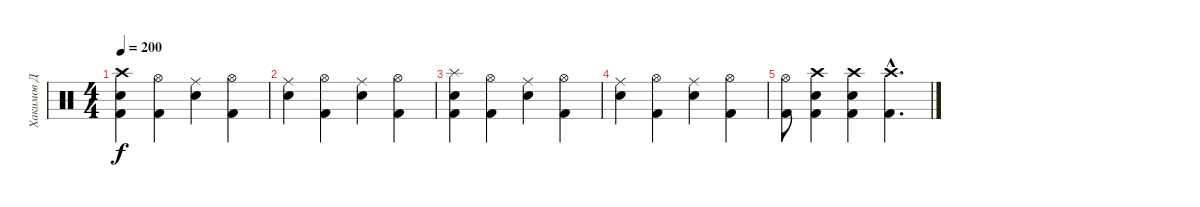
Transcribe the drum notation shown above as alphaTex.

\track ("Хакимов Д" "Хакимов Д") {instrument percussion}
\staff {score}
\articulation defaults
\ts (4 4)
\tempo 200
\clef neutral
\ks c
("Crash high (hit)" "Snare (hit) 2" "Kick (hit) 2").4{dy f} ("Hi-Hat (open)" "Kick (hit) 2").4 ("Ride (middle)" "Snare (hit) 2").4 ("Hi-Hat (open)" "Kick (hit) 2").4 |
("Ride (middle)" "Snare (hit) 2").4 ("Hi-Hat (open)" "Kick (hit) 2").4 ("Ride (middle)" "Snare (hit) 2").4 ("Hi-Hat (open)" "Kick (hit) 2").4 |
("Splash (hit)" "Snare (hit) 2" "Kick (hit) 2").4 ("Hi-Hat (open)" "Kick (hit) 2").4 ("Ride (middle)" "Snare (hit) 2").4 ("Hi-Hat (open)" "Kick (hit) 2").4 |
("Ride (middle)" "Snare (hit) 2").4 ("Hi-Hat (open)" "Kick (hit) 2").4 ("Ride (middle)" "Snare (hit) 2").4 ("Hi-Hat (open)" "Kick (hit) 2").4 |
("Hi-Hat (open)" "Kick (hit) 2").8 ("Crash high (hit)" "Snare (hit) 2" "Kick (hit) 2").4 ("Crash high (hit)" "Snare (hit) 2" "Kick (hit) 2").4 ("Crash high (hit)"{hac} "Kick (hit) 2"{hac}).4{d}
